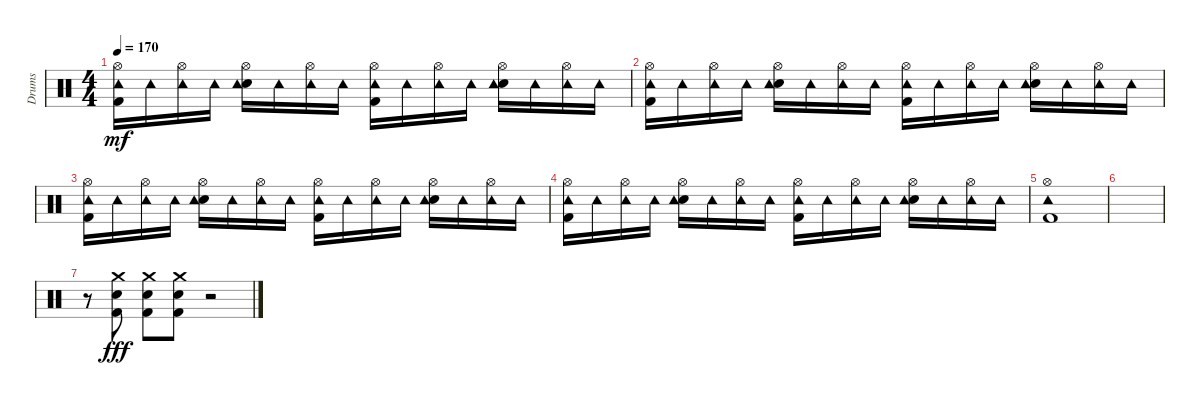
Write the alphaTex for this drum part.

\track ("Drums" "Drums") {instrument percussion}
\staff {score}
\articulation defaults
\ts (4 4)
\tempo 170
\clef neutral
\ks c
("Hi-Hat (open)" "Kick (hit) 2" "Tambourine (hit)").16{dy mf} "Tambourine (hit)".16 ("Hi-Hat (open)" "Tambourine (hit)").16 "Tambourine (hit)".16 ("Hi-Hat (open)" "Snare (hit) 2" "Tambourine (hit)").16 "Tambourine (hit)".16 ("Hi-Hat (open)" "Tambourine (hit)").16 "Tambourine (hit)".16 ("Hi-Hat (open)" "Kick (hit) 2" "Tambourine (hit)").16 "Tambourine (hit)".16 ("Hi-Hat (open)" "Tambourine (hit)").16 "Tambourine (hit)".16 ("Hi-Hat (open)" "Snare (hit) 2" "Tambourine (hit)").16 "Tambourine (hit)".16 ("Hi-Hat (open)" "Tambourine (hit)").16 "Tambourine (hit)".16 |
("Hi-Hat (open)" "Kick (hit) 2" "Tambourine (hit)").16 "Tambourine (hit)".16 ("Hi-Hat (open)" "Tambourine (hit)").16 "Tambourine (hit)".16 ("Hi-Hat (open)" "Snare (hit) 2" "Tambourine (hit)").16 "Tambourine (hit)".16 ("Hi-Hat (open)" "Tambourine (hit)").16 "Tambourine (hit)".16 ("Hi-Hat (open)" "Kick (hit) 2" "Tambourine (hit)").16 "Tambourine (hit)".16 ("Hi-Hat (open)" "Tambourine (hit)").16 "Tambourine (hit)".16 ("Hi-Hat (open)" "Snare (hit) 2" "Tambourine (hit)").16 "Tambourine (hit)".16 ("Hi-Hat (open)" "Tambourine (hit)").16 "Tambourine (hit)".16 |
("Hi-Hat (open)" "Kick (hit) 2" "Tambourine (hit)").16 "Tambourine (hit)".16 ("Hi-Hat (open)" "Tambourine (hit)").16 "Tambourine (hit)".16 ("Hi-Hat (open)" "Snare (hit) 2" "Tambourine (hit)").16 "Tambourine (hit)".16 ("Hi-Hat (open)" "Tambourine (hit)").16 "Tambourine (hit)".16 ("Hi-Hat (open)" "Kick (hit) 2" "Tambourine (hit)").16 "Tambourine (hit)".16 ("Hi-Hat (open)" "Tambourine (hit)").16 "Tambourine (hit)".16 ("Hi-Hat (open)" "Snare (hit) 2" "Tambourine (hit)").16 "Tambourine (hit)".16 ("Hi-Hat (open)" "Tambourine (hit)").16 "Tambourine (hit)".16 |
("Hi-Hat (open)" "Kick (hit) 2" "Tambourine (hit)").16 "Tambourine (hit)".16 ("Hi-Hat (open)" "Tambourine (hit)").16 "Tambourine (hit)".16 ("Hi-Hat (open)" "Snare (hit) 2" "Tambourine (hit)").16 "Tambourine (hit)".16 ("Hi-Hat (open)" "Tambourine (hit)").16 "Tambourine (hit)".16 ("Hi-Hat (open)" "Kick (hit) 2" "Tambourine (hit)").16 "Tambourine (hit)".16 ("Hi-Hat (open)" "Tambourine (hit)").16 "Tambourine (hit)".16 ("Hi-Hat (open)" "Snare (hit) 2" "Tambourine (hit)").16 "Tambourine (hit)".16 ("Hi-Hat (open)" "Tambourine (hit)").16 "Tambourine (hit)".16 |
("Hi-Hat (open)" "Kick (hit) 2" "Tambourine (hit)").1 |
|
r.8 ("Crash medium (hit)" "Snare (hit) 2" "Kick (hit) 2").8{dy fff} ("Crash medium (hit)" "Snare (hit) 2" "Kick (hit) 2").8 ("Crash medium (hit)" "Snare (hit) 2" "Kick (hit) 2").8 r.2
